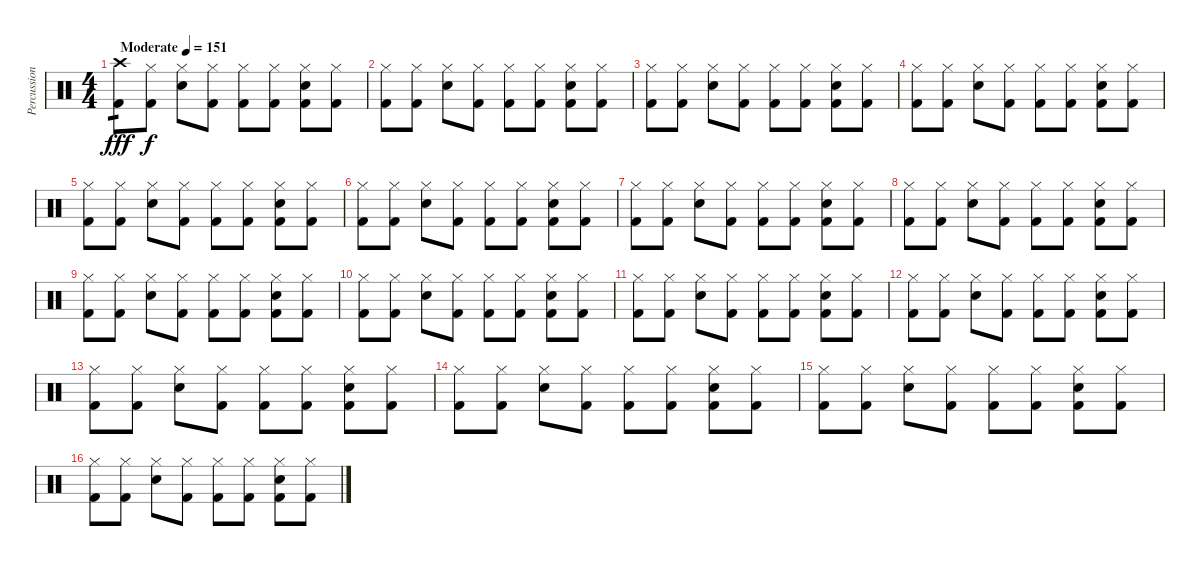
\track ("Percussion" "Percussion") {instrument percussion bank 1}
\staff {score}
\articulation defaults
\ts (4 4)
\tempo (151 "Moderate")
\clef neutral
\ks c
("Crash high (hit)" "Kick (hit) 2").8{tp 1 dy fff} ("Hi-Hat (closed)" "Kick (hit) 2").8{dy f} ("Snare (hit) 2" "Hi-Hat (closed)").8 ("Hi-Hat (closed)" "Kick (hit) 2").8 ("Hi-Hat (closed)" "Kick (hit) 2").8 ("Hi-Hat (closed)" "Kick (hit) 2").8 ("Snare (hit) 2" "Hi-Hat (closed)" "Kick (hit) 2").8 ("Hi-Hat (closed)" "Kick (hit) 2").8 |
("Hi-Hat (closed)" "Kick (hit) 2").8 ("Hi-Hat (closed)" "Kick (hit) 2").8 ("Snare (hit) 2" "Hi-Hat (closed)").8 ("Hi-Hat (closed)" "Kick (hit) 2").8 ("Hi-Hat (closed)" "Kick (hit) 2").8 ("Hi-Hat (closed)" "Kick (hit) 2").8 ("Snare (hit) 2" "Hi-Hat (closed)" "Kick (hit) 2").8 ("Hi-Hat (closed)" "Kick (hit) 2").8 |
("Hi-Hat (closed)" "Kick (hit) 2").8 ("Hi-Hat (closed)" "Kick (hit) 2").8 ("Snare (hit) 2" "Hi-Hat (closed)").8 ("Hi-Hat (closed)" "Kick (hit) 2").8 ("Hi-Hat (closed)" "Kick (hit) 2").8 ("Hi-Hat (closed)" "Kick (hit) 2").8 ("Snare (hit) 2" "Hi-Hat (closed)" "Kick (hit) 2").8 ("Hi-Hat (closed)" "Kick (hit) 2").8 |
("Hi-Hat (closed)" "Kick (hit) 2").8 ("Hi-Hat (closed)" "Kick (hit) 2").8 ("Snare (hit) 2" "Hi-Hat (closed)").8 ("Hi-Hat (closed)" "Kick (hit) 2").8 ("Hi-Hat (closed)" "Kick (hit) 2").8 ("Hi-Hat (closed)" "Kick (hit) 2").8 ("Snare (hit) 2" "Hi-Hat (closed)" "Kick (hit) 2").8 ("Hi-Hat (closed)" "Kick (hit) 2").8 |
("Hi-Hat (closed)" "Kick (hit) 2").8 ("Hi-Hat (closed)" "Kick (hit) 2").8 ("Snare (hit) 2" "Hi-Hat (closed)").8 ("Hi-Hat (closed)" "Kick (hit) 2").8 ("Hi-Hat (closed)" "Kick (hit) 2").8 ("Hi-Hat (closed)" "Kick (hit) 2").8 ("Snare (hit) 2" "Hi-Hat (closed)" "Kick (hit) 2").8 ("Hi-Hat (closed)" "Kick (hit) 2").8 |
("Hi-Hat (closed)" "Kick (hit) 2").8 ("Hi-Hat (closed)" "Kick (hit) 2").8 ("Snare (hit) 2" "Hi-Hat (closed)").8 ("Hi-Hat (closed)" "Kick (hit) 2").8 ("Hi-Hat (closed)" "Kick (hit) 2").8 ("Hi-Hat (closed)" "Kick (hit) 2").8 ("Snare (hit) 2" "Hi-Hat (closed)" "Kick (hit) 2").8 ("Hi-Hat (closed)" "Kick (hit) 2").8 |
("Hi-Hat (closed)" "Kick (hit) 2").8 ("Hi-Hat (closed)" "Kick (hit) 2").8 ("Snare (hit) 2" "Hi-Hat (closed)").8 ("Hi-Hat (closed)" "Kick (hit) 2").8 ("Hi-Hat (closed)" "Kick (hit) 2").8 ("Hi-Hat (closed)" "Kick (hit) 2").8 ("Snare (hit) 2" "Hi-Hat (closed)" "Kick (hit) 2").8 ("Hi-Hat (closed)" "Kick (hit) 2").8 |
("Hi-Hat (closed)" "Kick (hit) 2").8 ("Hi-Hat (closed)" "Kick (hit) 2").8 ("Snare (hit) 2" "Hi-Hat (closed)").8 ("Hi-Hat (closed)" "Kick (hit) 2").8 ("Hi-Hat (closed)" "Kick (hit) 2").8 ("Hi-Hat (closed)" "Kick (hit) 2").8 ("Snare (hit) 2" "Hi-Hat (closed)" "Kick (hit) 2").8 ("Hi-Hat (closed)" "Kick (hit) 2").8 |
("Hi-Hat (closed)" "Kick (hit) 2").8 ("Hi-Hat (closed)" "Kick (hit) 2").8 ("Snare (hit) 2" "Hi-Hat (closed)").8 ("Hi-Hat (closed)" "Kick (hit) 2").8 ("Hi-Hat (closed)" "Kick (hit) 2").8 ("Hi-Hat (closed)" "Kick (hit) 2").8 ("Snare (hit) 2" "Hi-Hat (closed)" "Kick (hit) 2").8 ("Hi-Hat (closed)" "Kick (hit) 2").8 |
("Hi-Hat (closed)" "Kick (hit) 2").8 ("Hi-Hat (closed)" "Kick (hit) 2").8 ("Snare (hit) 2" "Hi-Hat (closed)").8 ("Hi-Hat (closed)" "Kick (hit) 2").8 ("Hi-Hat (closed)" "Kick (hit) 2").8 ("Hi-Hat (closed)" "Kick (hit) 2").8 ("Snare (hit) 2" "Hi-Hat (closed)" "Kick (hit) 2").8 ("Hi-Hat (closed)" "Kick (hit) 2").8 |
("Hi-Hat (closed)" "Kick (hit) 2").8 ("Hi-Hat (closed)" "Kick (hit) 2").8 ("Snare (hit) 2" "Hi-Hat (closed)").8 ("Hi-Hat (closed)" "Kick (hit) 2").8 ("Hi-Hat (closed)" "Kick (hit) 2").8 ("Hi-Hat (closed)" "Kick (hit) 2").8 ("Snare (hit) 2" "Hi-Hat (closed)" "Kick (hit) 2").8 ("Hi-Hat (closed)" "Kick (hit) 2").8 |
("Hi-Hat (closed)" "Kick (hit) 2").8 ("Hi-Hat (closed)" "Kick (hit) 2").8 ("Snare (hit) 2" "Hi-Hat (closed)").8 ("Hi-Hat (closed)" "Kick (hit) 2").8 ("Hi-Hat (closed)" "Kick (hit) 2").8 ("Hi-Hat (closed)" "Kick (hit) 2").8 ("Snare (hit) 2" "Hi-Hat (closed)" "Kick (hit) 2").8 ("Hi-Hat (closed)" "Kick (hit) 2").8 |
("Hi-Hat (closed)" "Kick (hit) 2").8 ("Hi-Hat (closed)" "Kick (hit) 2").8 ("Snare (hit) 2" "Hi-Hat (closed)").8 ("Hi-Hat (closed)" "Kick (hit) 2").8 ("Hi-Hat (closed)" "Kick (hit) 2").8 ("Hi-Hat (closed)" "Kick (hit) 2").8 ("Snare (hit) 2" "Hi-Hat (closed)" "Kick (hit) 2").8 ("Hi-Hat (closed)" "Kick (hit) 2").8 |
("Hi-Hat (closed)" "Kick (hit) 2").8 ("Hi-Hat (closed)" "Kick (hit) 2").8 ("Snare (hit) 2" "Hi-Hat (closed)").8 ("Hi-Hat (closed)" "Kick (hit) 2").8 ("Hi-Hat (closed)" "Kick (hit) 2").8 ("Hi-Hat (closed)" "Kick (hit) 2").8 ("Snare (hit) 2" "Hi-Hat (closed)" "Kick (hit) 2").8 ("Hi-Hat (closed)" "Kick (hit) 2").8 |
("Hi-Hat (closed)" "Kick (hit) 2").8 ("Hi-Hat (closed)" "Kick (hit) 2").8 ("Snare (hit) 2" "Hi-Hat (closed)").8 ("Hi-Hat (closed)" "Kick (hit) 2").8 ("Hi-Hat (closed)" "Kick (hit) 2").8 ("Hi-Hat (closed)" "Kick (hit) 2").8 ("Snare (hit) 2" "Hi-Hat (closed)" "Kick (hit) 2").8 ("Hi-Hat (closed)" "Kick (hit) 2").8 |
("Hi-Hat (closed)" "Kick (hit) 2").8 ("Hi-Hat (closed)" "Kick (hit) 2").8 ("Snare (hit) 2" "Hi-Hat (closed)").8 ("Hi-Hat (closed)" "Kick (hit) 2").8 ("Hi-Hat (closed)" "Kick (hit) 2").8 ("Hi-Hat (closed)" "Kick (hit) 2").8 ("Snare (hit) 2" "Hi-Hat (closed)" "Kick (hit) 2").8 ("Hi-Hat (closed)" "Kick (hit) 2").8
